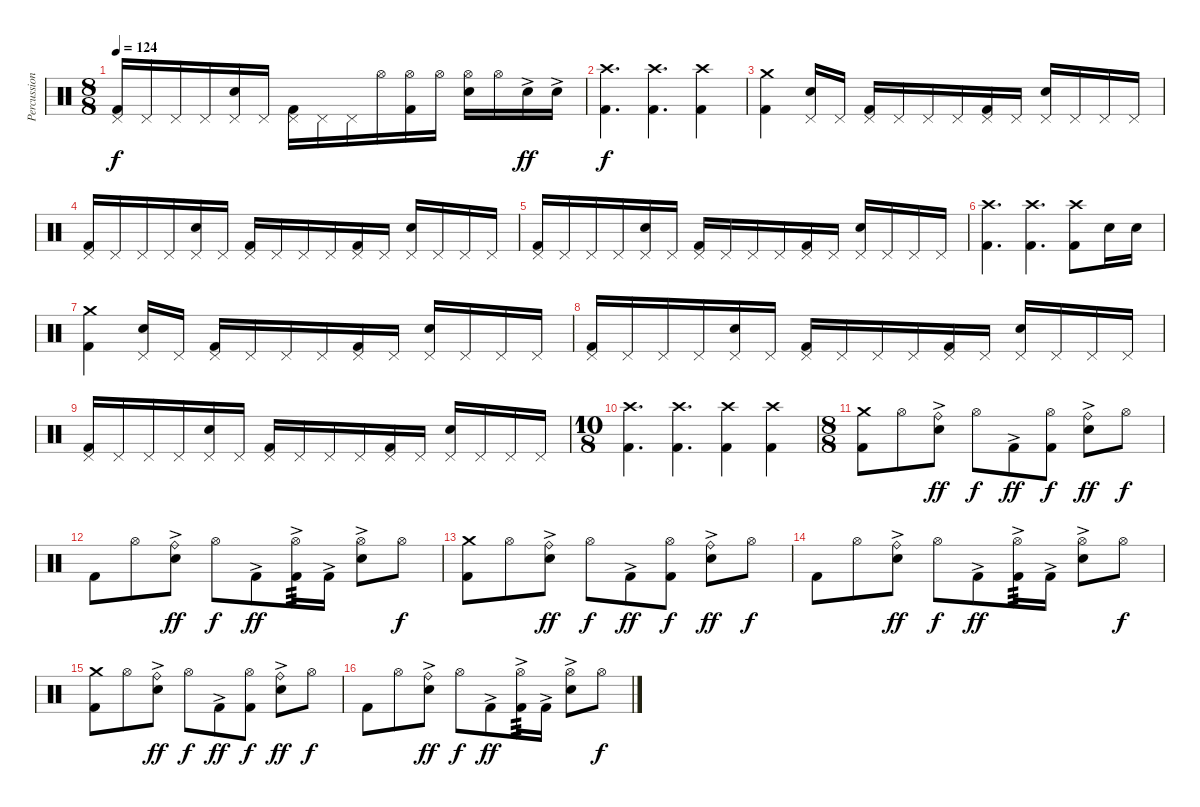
\track ("Percussion" "Percussion") {instrument percussion}
\staff {score}
\articulation defaults
\ts (8 8)
\tempo 124
\clef neutral
\ks c
("Kick (hit) 2" "Pedal Hi-Hat (hit)").16{dy f} "Pedal Hi-Hat (hit)".16 "Pedal Hi-Hat (hit)".16 "Pedal Hi-Hat (hit)".16 ("Electric Snare (hit)" "Pedal Hi-Hat (hit)").16 "Pedal Hi-Hat (hit)".16 ("Kick (hit) 2" "Pedal Hi-Hat (hit)").16 "Pedal Hi-Hat (hit)".16 "Pedal Hi-Hat (hit)".16 "Hi-Hat (open)".16 ("Kick (hit) 2" "Hi-Hat (open)").16 "Hi-Hat (open)".16 ("Electric Snare (hit)" "Hi-Hat (open)").16 "Hi-Hat (open)".16 "Electric Snare (hit)"{ac}.16{dy ff} "Electric Snare (hit)"{ac}.16 |
("Crash high (hit)" "Kick (hit) 2").4{d dy f} ("Crash high (hit)" "Kick (hit) 2").4{d} ("Crash high (hit)" "Kick (hit) 2").4 |
("Kick (hit) 2" "Crash medium (hit)").4 ("Electric Snare (hit)" "Pedal Hi-Hat (hit)").16 "Pedal Hi-Hat (hit)".16 ("Kick (hit) 2" "Pedal Hi-Hat (hit)").16 "Pedal Hi-Hat (hit)".16 "Pedal Hi-Hat (hit)".16 "Pedal Hi-Hat (hit)".16 ("Kick (hit) 2" "Pedal Hi-Hat (hit)").16 "Pedal Hi-Hat (hit)".16 ("Electric Snare (hit)" "Pedal Hi-Hat (hit)").16 "Pedal Hi-Hat (hit)".16 "Pedal Hi-Hat (hit)".16 "Pedal Hi-Hat (hit)".16 |
("Kick (hit) 2" "Pedal Hi-Hat (hit)").16 "Pedal Hi-Hat (hit)".16 "Pedal Hi-Hat (hit)".16 "Pedal Hi-Hat (hit)".16 ("Electric Snare (hit)" "Pedal Hi-Hat (hit)").16 "Pedal Hi-Hat (hit)".16 ("Kick (hit) 2" "Pedal Hi-Hat (hit)").16 "Pedal Hi-Hat (hit)".16 "Pedal Hi-Hat (hit)".16 "Pedal Hi-Hat (hit)".16 ("Kick (hit) 2" "Pedal Hi-Hat (hit)").16 "Pedal Hi-Hat (hit)".16 ("Electric Snare (hit)" "Pedal Hi-Hat (hit)").16 "Pedal Hi-Hat (hit)".16 "Pedal Hi-Hat (hit)".16 "Pedal Hi-Hat (hit)".16 |
("Kick (hit) 2" "Pedal Hi-Hat (hit)").16 "Pedal Hi-Hat (hit)".16 "Pedal Hi-Hat (hit)".16 "Pedal Hi-Hat (hit)".16 ("Electric Snare (hit)" "Pedal Hi-Hat (hit)").16 "Pedal Hi-Hat (hit)".16 ("Kick (hit) 2" "Pedal Hi-Hat (hit)").16 "Pedal Hi-Hat (hit)".16 "Pedal Hi-Hat (hit)".16 "Pedal Hi-Hat (hit)".16 ("Kick (hit) 2" "Pedal Hi-Hat (hit)").16 "Pedal Hi-Hat (hit)".16 ("Electric Snare (hit)" "Pedal Hi-Hat (hit)").16 "Pedal Hi-Hat (hit)".16 "Pedal Hi-Hat (hit)".16 "Pedal Hi-Hat (hit)".16 |
("Crash high (hit)" "Kick (hit) 2").4{d} ("Crash high (hit)" "Kick (hit) 2").4{d} ("Crash high (hit)" "Kick (hit) 2").8 "Electric Snare (hit)".16 "Electric Snare (hit)".16 |
("Kick (hit) 2" "Crash medium (hit)").4 ("Electric Snare (hit)" "Pedal Hi-Hat (hit)").16 "Pedal Hi-Hat (hit)".16 ("Kick (hit) 2" "Pedal Hi-Hat (hit)").16 "Pedal Hi-Hat (hit)".16 "Pedal Hi-Hat (hit)".16 "Pedal Hi-Hat (hit)".16 ("Kick (hit) 2" "Pedal Hi-Hat (hit)").16 "Pedal Hi-Hat (hit)".16 ("Electric Snare (hit)" "Pedal Hi-Hat (hit)").16 "Pedal Hi-Hat (hit)".16 "Pedal Hi-Hat (hit)".16 "Pedal Hi-Hat (hit)".16 |
("Kick (hit) 2" "Pedal Hi-Hat (hit)").16 "Pedal Hi-Hat (hit)".16 "Pedal Hi-Hat (hit)".16 "Pedal Hi-Hat (hit)".16 ("Electric Snare (hit)" "Pedal Hi-Hat (hit)").16 "Pedal Hi-Hat (hit)".16 ("Kick (hit) 2" "Pedal Hi-Hat (hit)").16 "Pedal Hi-Hat (hit)".16 "Pedal Hi-Hat (hit)".16 "Pedal Hi-Hat (hit)".16 ("Kick (hit) 2" "Pedal Hi-Hat (hit)").16 "Pedal Hi-Hat (hit)".16 ("Electric Snare (hit)" "Pedal Hi-Hat (hit)").16 "Pedal Hi-Hat (hit)".16 "Pedal Hi-Hat (hit)".16 "Pedal Hi-Hat (hit)".16 |
("Kick (hit) 2" "Pedal Hi-Hat (hit)").16 "Pedal Hi-Hat (hit)".16 "Pedal Hi-Hat (hit)".16 "Pedal Hi-Hat (hit)".16 ("Electric Snare (hit)" "Pedal Hi-Hat (hit)").16 "Pedal Hi-Hat (hit)".16 ("Kick (hit) 2" "Pedal Hi-Hat (hit)").16 "Pedal Hi-Hat (hit)".16 "Pedal Hi-Hat (hit)".16 "Pedal Hi-Hat (hit)".16 ("Kick (hit) 2" "Pedal Hi-Hat (hit)").16 "Pedal Hi-Hat (hit)".16 ("Electric Snare (hit)" "Pedal Hi-Hat (hit)").16 "Pedal Hi-Hat (hit)".16 "Pedal Hi-Hat (hit)".16 "Pedal Hi-Hat (hit)".16 |
\ts (10 8)
("Crash high (hit)" "Kick (hit) 2").4{d} ("Crash high (hit)" "Kick (hit) 2").4{d} ("Crash high (hit)" "Kick (hit) 2").4 ("Crash high (hit)" "Kick (hit) 2").4 |
\ts (8 8)
("Crash medium (hit)" "Kick (hit) 2").8 "Hi-Hat (open)".8 ("Ride (bell)" "Electric Snare (hit)"{ac}).8{dy ff} "Hi-Hat (open)".8{dy f} "Kick (hit) 2"{ac}.8{dy ff} ("Hi-Hat (open)" "Kick (hit) 2").8{dy f} ("Ride (bell)" "Electric Snare (hit)"{ac}).8{dy ff} "Hi-Hat (open)".8{dy f} |
"Kick (hit) 2".8 "Hi-Hat (open)".8 ("Ride (bell)" "Electric Snare (hit)"{ac}).8{dy ff} "Hi-Hat (open)".8{dy f} "Kick (hit) 2"{ac}.8{dy ff} ("Hi-Hat (open)" "Kick (hit) 2"{ac}).16{tp 3} "Kick (hit) 2"{ac}.16 ("Hi-Hat (open)" "Electric Snare (hit)"{ac}).8 "Hi-Hat (open)".8{dy f} |
("Crash medium (hit)" "Kick (hit) 2").8 "Hi-Hat (open)".8 ("Ride (bell)" "Electric Snare (hit)"{ac}).8{dy ff} "Hi-Hat (open)".8{dy f} "Kick (hit) 2"{ac}.8{dy ff} ("Hi-Hat (open)" "Kick (hit) 2").8{dy f} ("Ride (bell)" "Electric Snare (hit)"{ac}).8{dy ff} "Hi-Hat (open)".8{dy f} |
"Kick (hit) 2".8 "Hi-Hat (open)".8 ("Ride (bell)" "Electric Snare (hit)"{ac}).8{dy ff} "Hi-Hat (open)".8{dy f} "Kick (hit) 2"{ac}.8{dy ff} ("Hi-Hat (open)" "Kick (hit) 2"{ac}).16{tp 3} "Kick (hit) 2"{ac}.16 ("Hi-Hat (open)" "Electric Snare (hit)"{ac}).8 "Hi-Hat (open)".8{dy f} |
("Crash medium (hit)" "Kick (hit) 2").8 "Hi-Hat (open)".8 ("Ride (bell)" "Electric Snare (hit)"{ac}).8{dy ff} "Hi-Hat (open)".8{dy f} "Kick (hit) 2"{ac}.8{dy ff} ("Hi-Hat (open)" "Kick (hit) 2").8{dy f} ("Ride (bell)" "Electric Snare (hit)"{ac}).8{dy ff} "Hi-Hat (open)".8{dy f} |
"Kick (hit) 2".8 "Hi-Hat (open)".8 ("Ride (bell)" "Electric Snare (hit)"{ac}).8{dy ff} "Hi-Hat (open)".8{dy f} "Kick (hit) 2"{ac}.8{dy ff} ("Hi-Hat (open)" "Kick (hit) 2"{ac}).16{tp 3} "Kick (hit) 2"{ac}.16 ("Hi-Hat (open)" "Electric Snare (hit)"{ac}).8 "Hi-Hat (open)".8{dy f}
